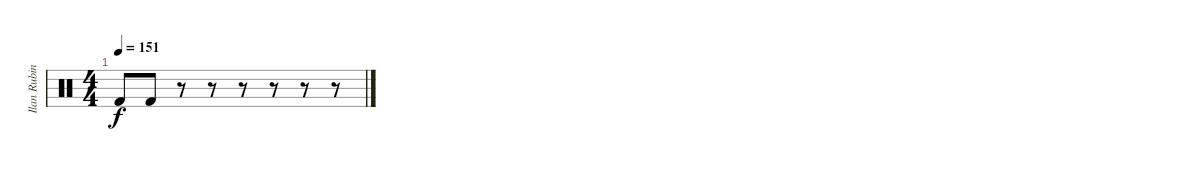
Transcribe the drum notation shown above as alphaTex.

\track ("Ilan Rubin [Drums]" "Ilan Rubin") {instrument percussion}
\staff {score}
\articulation defaults
\ts (4 4)
\tempo 151
\clef neutral
\ks c "Kick (hit) 2".8{dy f} "Kick (hit) 2".8
r.8 r.8 r.8 r.8 r.8 r.8
